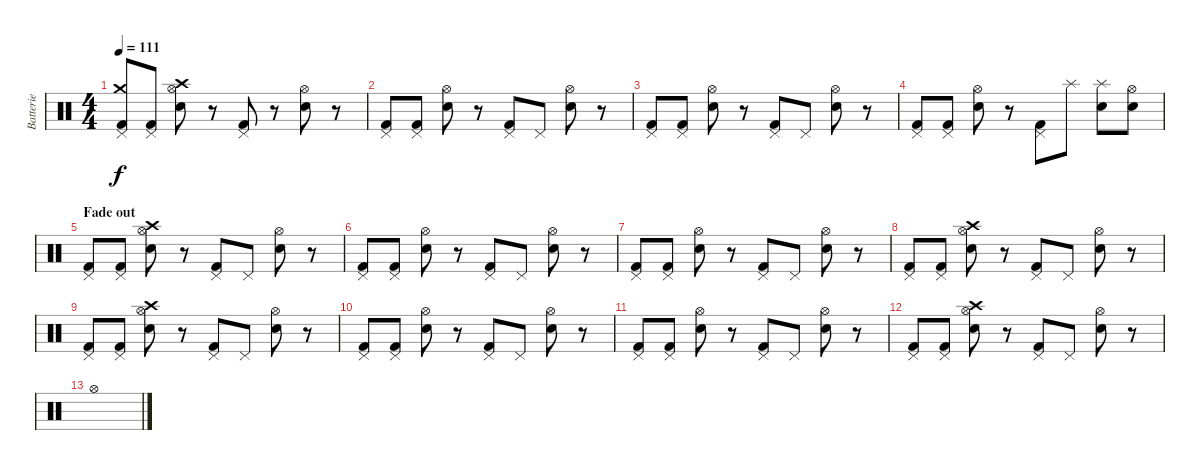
\track ("Batterie" "Batterie") {instrument percussion}
\staff {score}
\articulation defaults
\ts (4 4)
\tempo 111
\clef neutral
\ks c
("Pedal Hi-Hat (hit)" "Crash medium (hit)" "Kick (hit) 2").8{dy f} ("Pedal Hi-Hat (hit)" "Kick (hit) 2").8 ("Hi-Hat (open)" "Crash high (hit)" "Electric Snare (hit)").8 r.8 ("Pedal Hi-Hat (hit)" "Kick (hit) 2").8 r.8 ("Hi-Hat (open)" "Electric Snare (hit)").8 r.8 |
("Pedal Hi-Hat (hit)" "Kick (hit) 2").8 ("Pedal Hi-Hat (hit)" "Kick (hit) 2").8 ("Hi-Hat (open)" "Electric Snare (hit)").8 r.8 ("Pedal Hi-Hat (hit)" "Kick (hit) 2").8 "Pedal Hi-Hat (hit)".8 ("Hi-Hat (open)" "Electric Snare (hit)").8 r.8 |
("Pedal Hi-Hat (hit)" "Kick (hit) 2").8 ("Pedal Hi-Hat (hit)" "Kick (hit) 2").8 ("Hi-Hat (open)" "Electric Snare (hit)").8 r.8 ("Pedal Hi-Hat (hit)" "Kick (hit) 2").8 "Pedal Hi-Hat (hit)".8 ("Hi-Hat (open)" "Electric Snare (hit)").8 r.8 |
("Pedal Hi-Hat (hit)" "Kick (hit) 2").8 ("Pedal Hi-Hat (hit)" "Kick (hit) 2").8 ("Hi-Hat (open)" "Electric Snare (hit)").8 r.8 ("Pedal Hi-Hat (hit)" "Kick (hit) 2").8 "Splash (hit)".8 ("Splash (hit)" "Electric Snare (hit)").8 ("Hi-Hat (open)" "Electric Snare (hit)").8 |
\section ("" "Fade out")
("Pedal Hi-Hat (hit)" "Kick (hit) 2").8 ("Pedal Hi-Hat (hit)" "Kick (hit) 2").8 ("Hi-Hat (open)" "Crash high (hit)" "Electric Snare (hit)").8 r.8 ("Pedal Hi-Hat (hit)" "Kick (hit) 2").8 "Pedal Hi-Hat (hit)".8 ("Hi-Hat (open)" "Electric Snare (hit)").8 r.8 |
("Pedal Hi-Hat (hit)" "Kick (hit) 2").8 ("Pedal Hi-Hat (hit)" "Kick (hit) 2").8 ("Hi-Hat (open)" "Electric Snare (hit)").8 r.8 ("Pedal Hi-Hat (hit)" "Kick (hit) 2").8 "Pedal Hi-Hat (hit)".8 ("Hi-Hat (open)" "Electric Snare (hit)").8 r.8 |
("Pedal Hi-Hat (hit)" "Kick (hit) 2").8 ("Pedal Hi-Hat (hit)" "Kick (hit) 2").8 ("Hi-Hat (open)" "Electric Snare (hit)").8 r.8 ("Pedal Hi-Hat (hit)" "Kick (hit) 2").8 "Pedal Hi-Hat (hit)".8 ("Hi-Hat (open)" "Electric Snare (hit)").8 r.8 |
("Pedal Hi-Hat (hit)" "Kick (hit) 2").8 ("Pedal Hi-Hat (hit)" "Kick (hit) 2").8 ("Hi-Hat (open)" "Crash high (hit)" "Electric Snare (hit)").8 r.8 ("Pedal Hi-Hat (hit)" "Kick (hit) 2").8 "Pedal Hi-Hat (hit)".8 ("Hi-Hat (open)" "Electric Snare (hit)").8 r.8 |
("Pedal Hi-Hat (hit)" "Kick (hit) 2").8 ("Pedal Hi-Hat (hit)" "Kick (hit) 2").8 ("Hi-Hat (open)" "Crash high (hit)" "Electric Snare (hit)").8 r.8 ("Pedal Hi-Hat (hit)" "Kick (hit) 2").8 "Pedal Hi-Hat (hit)".8 ("Hi-Hat (open)" "Electric Snare (hit)").8 r.8 |
("Pedal Hi-Hat (hit)" "Kick (hit) 2").8 ("Pedal Hi-Hat (hit)" "Kick (hit) 2").8 ("Hi-Hat (open)" "Electric Snare (hit)").8 r.8 ("Pedal Hi-Hat (hit)" "Kick (hit) 2").8 "Pedal Hi-Hat (hit)".8 ("Hi-Hat (open)" "Electric Snare (hit)").8 r.8 |
("Pedal Hi-Hat (hit)" "Kick (hit) 2").8 ("Pedal Hi-Hat (hit)" "Kick (hit) 2").8 ("Hi-Hat (open)" "Electric Snare (hit)").8 r.8 ("Pedal Hi-Hat (hit)" "Kick (hit) 2").8 "Pedal Hi-Hat (hit)".8 ("Hi-Hat (open)" "Electric Snare (hit)").8 r.8 |
("Pedal Hi-Hat (hit)" "Kick (hit) 2").8 ("Pedal Hi-Hat (hit)" "Kick (hit) 2").8 ("Hi-Hat (open)" "Crash high (hit)" "Electric Snare (hit)").8 r.8 ("Pedal Hi-Hat (hit)" "Kick (hit) 2").8 "Pedal Hi-Hat (hit)".8 ("Hi-Hat (open)" "Electric Snare (hit)").8 r.8 |
"Hi-Hat (open)".1
